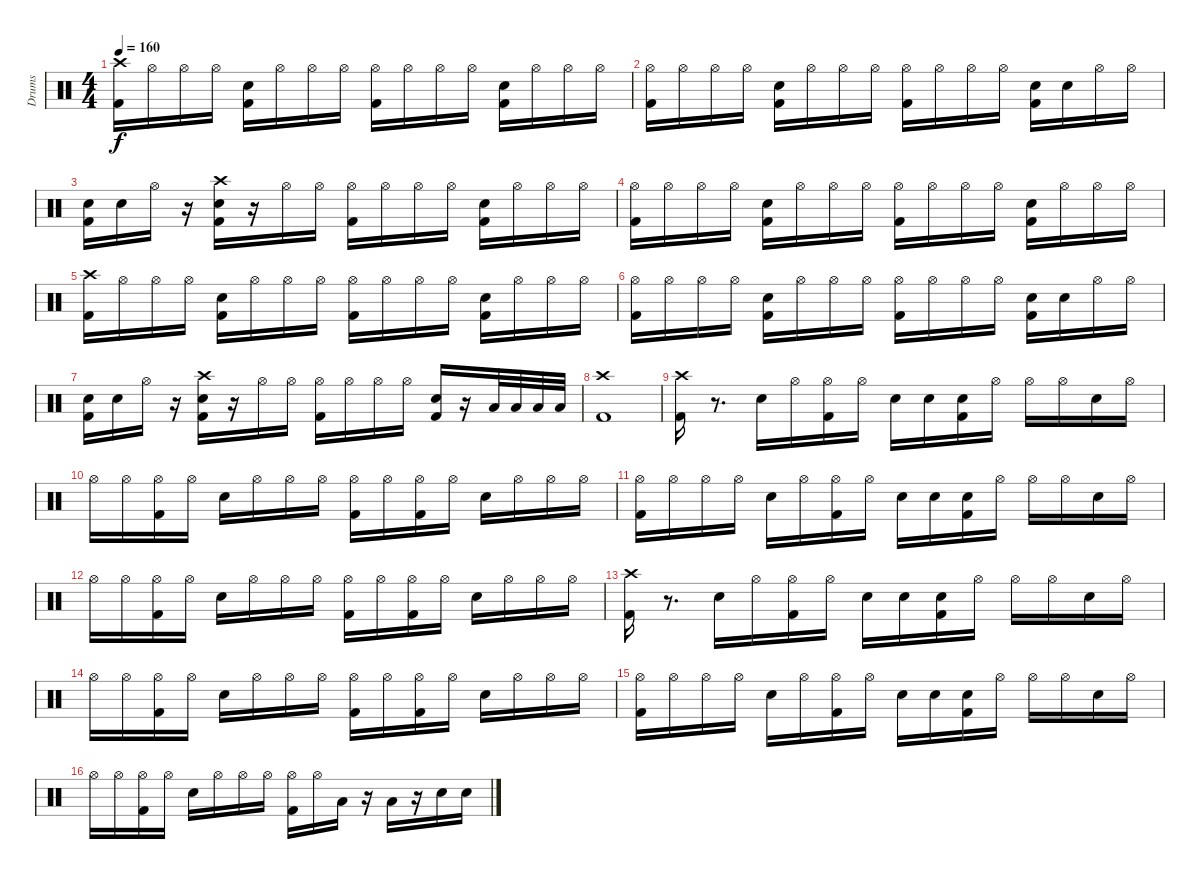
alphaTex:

\track ("Drums" "Drums") {instrument percussion}
\staff {score}
\articulation defaults
\ts (4 4)
\tempo 160
\clef neutral
\ks c
("Crash high (hit)" "Kick (hit) 2").16{dy f} "Hi-Hat (open)".16 "Hi-Hat (open)".16 "Hi-Hat (open)".16 ("Electric Snare (hit)" "Kick (hit) 2").16 "Hi-Hat (open)".16 "Hi-Hat (open)".16 "Hi-Hat (open)".16 ("Hi-Hat (open)" "Kick (hit) 2").16 "Hi-Hat (open)".16 "Hi-Hat (open)".16 "Hi-Hat (open)".16 ("Electric Snare (hit)" "Kick (hit) 2").16 "Hi-Hat (open)".16 "Hi-Hat (open)".16 "Hi-Hat (open)".16 |
("Hi-Hat (open)" "Kick (hit) 2").16 "Hi-Hat (open)".16 "Hi-Hat (open)".16 "Hi-Hat (open)".16 ("Electric Snare (hit)" "Kick (hit) 2").16 "Hi-Hat (open)".16 "Hi-Hat (open)".16 "Hi-Hat (open)".16 ("Hi-Hat (open)" "Kick (hit) 2").16 "Hi-Hat (open)".16 "Hi-Hat (open)".16 "Hi-Hat (open)".16 ("Electric Snare (hit)" "Kick (hit) 2").16 "Electric Snare (hit)".16 "Hi-Hat (open)".16 "Hi-Hat (open)".16 |
("Electric Snare (hit)" "Kick (hit) 2").16 "Electric Snare (hit)".16 "Hi-Hat (open)".16 r.16 ("Crash high (hit)" "Electric Snare (hit)" "Kick (hit) 2").16 r.16 "Hi-Hat (open)".16 "Hi-Hat (open)".16 ("Hi-Hat (open)" "Kick (hit) 2").16 "Hi-Hat (open)".16 "Hi-Hat (open)".16 "Hi-Hat (open)".16 ("Electric Snare (hit)" "Kick (hit) 2").16 "Hi-Hat (open)".16 "Hi-Hat (open)".16 "Hi-Hat (open)".16 |
("Hi-Hat (open)" "Kick (hit) 2").16 "Hi-Hat (open)".16 "Hi-Hat (open)".16 "Hi-Hat (open)".16 ("Electric Snare (hit)" "Kick (hit) 2").16 "Hi-Hat (open)".16 "Hi-Hat (open)".16 "Hi-Hat (open)".16 ("Hi-Hat (open)" "Kick (hit) 2").16 "Hi-Hat (open)".16 "Hi-Hat (open)".16 "Hi-Hat (open)".16 ("Electric Snare (hit)" "Kick (hit) 2").16 "Hi-Hat (open)".16 "Hi-Hat (open)".16 "Hi-Hat (open)".16 |
("Crash high (hit)" "Kick (hit) 2").16 "Hi-Hat (open)".16 "Hi-Hat (open)".16 "Hi-Hat (open)".16 ("Electric Snare (hit)" "Kick (hit) 2").16 "Hi-Hat (open)".16 "Hi-Hat (open)".16 "Hi-Hat (open)".16 ("Hi-Hat (open)" "Kick (hit) 2").16 "Hi-Hat (open)".16 "Hi-Hat (open)".16 "Hi-Hat (open)".16 ("Electric Snare (hit)" "Kick (hit) 2").16 "Hi-Hat (open)".16 "Hi-Hat (open)".16 "Hi-Hat (open)".16 |
("Hi-Hat (open)" "Kick (hit) 2").16 "Hi-Hat (open)".16 "Hi-Hat (open)".16 "Hi-Hat (open)".16 ("Electric Snare (hit)" "Kick (hit) 2").16 "Hi-Hat (open)".16 "Hi-Hat (open)".16 "Hi-Hat (open)".16 ("Hi-Hat (open)" "Kick (hit) 2").16 "Hi-Hat (open)".16 "Hi-Hat (open)".16 "Hi-Hat (open)".16 ("Electric Snare (hit)" "Kick (hit) 2").16 "Electric Snare (hit)".16 "Hi-Hat (open)".16 "Hi-Hat (open)".16 |
("Electric Snare (hit)" "Kick (hit) 2").16 "Electric Snare (hit)".16 "Hi-Hat (open)".16 r.16 ("Crash high (hit)" "Electric Snare (hit)" "Kick (hit) 2").16 r.16 "Hi-Hat (open)".16 "Hi-Hat (open)".16 ("Hi-Hat (open)" "Kick (hit) 2").16 "Hi-Hat (open)".16 "Hi-Hat (open)".16 "Hi-Hat (open)".16 ("Electric Snare (hit)" "Kick (hit) 2").16 r.16 "Low Tom (hit)".32 "Low Tom (hit)".32 "Low Tom (hit)".32 "Low Tom (hit)".32 |
("Crash high (hit)" "Kick (hit) 2").1 |
("Crash high (hit)" "Kick (hit) 2").16 r.8{d} "Electric Snare (hit)".16 "Hi-Hat (open)".16 ("Hi-Hat (open)" "Kick (hit) 2").16 "Hi-Hat (open)".16 "Electric Snare (hit)".16 "Electric Snare (hit)".16 ("Electric Snare (hit)" "Kick (hit) 2").16 "Hi-Hat (open)".16 "Hi-Hat (open)".16 "Hi-Hat (open)".16 "Electric Snare (hit)".16 "Hi-Hat (open)".16 |
"Hi-Hat (open)".16 "Hi-Hat (open)".16 ("Hi-Hat (open)" "Kick (hit) 2").16 "Hi-Hat (open)".16 "Electric Snare (hit)".16 "Hi-Hat (open)".16 "Hi-Hat (open)".16 "Hi-Hat (open)".16 ("Hi-Hat (open)" "Kick (hit) 2").16 "Hi-Hat (open)".16 ("Hi-Hat (open)" "Kick (hit) 2").16 "Hi-Hat (open)".16 "Electric Snare (hit)".16 "Hi-Hat (open)".16 "Hi-Hat (open)".16 "Hi-Hat (open)".16 |
("Hi-Hat (open)" "Kick (hit) 2").16 "Hi-Hat (open)".16 "Hi-Hat (open)".16 "Hi-Hat (open)".16 "Electric Snare (hit)".16 "Hi-Hat (open)".16 ("Hi-Hat (open)" "Kick (hit) 2").16 "Hi-Hat (open)".16 "Electric Snare (hit)".16 "Electric Snare (hit)".16 ("Electric Snare (hit)" "Kick (hit) 2").16 "Hi-Hat (open)".16 "Hi-Hat (open)".16 "Hi-Hat (open)".16 "Electric Snare (hit)".16 "Hi-Hat (open)".16 |
"Hi-Hat (open)".16 "Hi-Hat (open)".16 ("Hi-Hat (open)" "Kick (hit) 2").16 "Hi-Hat (open)".16 "Electric Snare (hit)".16 "Hi-Hat (open)".16 "Hi-Hat (open)".16 "Hi-Hat (open)".16 ("Hi-Hat (open)" "Kick (hit) 2").16 "Hi-Hat (open)".16 ("Hi-Hat (open)" "Kick (hit) 2").16 "Hi-Hat (open)".16 "Electric Snare (hit)".16 "Hi-Hat (open)".16 "Hi-Hat (open)".16 "Hi-Hat (open)".16 |
("Crash high (hit)" "Kick (hit) 2").16 r.8{d} "Electric Snare (hit)".16 "Hi-Hat (open)".16 ("Hi-Hat (open)" "Kick (hit) 2").16 "Hi-Hat (open)".16 "Electric Snare (hit)".16 "Electric Snare (hit)".16 ("Electric Snare (hit)" "Kick (hit) 2").16 "Hi-Hat (open)".16 "Hi-Hat (open)".16 "Hi-Hat (open)".16 "Electric Snare (hit)".16 "Hi-Hat (open)".16 |
"Hi-Hat (open)".16 "Hi-Hat (open)".16 ("Hi-Hat (open)" "Kick (hit) 2").16 "Hi-Hat (open)".16 "Electric Snare (hit)".16 "Hi-Hat (open)".16 "Hi-Hat (open)".16 "Hi-Hat (open)".16 ("Hi-Hat (open)" "Kick (hit) 2").16 "Hi-Hat (open)".16 ("Hi-Hat (open)" "Kick (hit) 2").16 "Hi-Hat (open)".16 "Electric Snare (hit)".16 "Hi-Hat (open)".16 "Hi-Hat (open)".16 "Hi-Hat (open)".16 |
("Hi-Hat (open)" "Kick (hit) 2").16 "Hi-Hat (open)".16 "Hi-Hat (open)".16 "Hi-Hat (open)".16 "Electric Snare (hit)".16 "Hi-Hat (open)".16 ("Hi-Hat (open)" "Kick (hit) 2").16 "Hi-Hat (open)".16 "Electric Snare (hit)".16 "Electric Snare (hit)".16 ("Electric Snare (hit)" "Kick (hit) 2").16 "Hi-Hat (open)".16 "Hi-Hat (open)".16 "Hi-Hat (open)".16 "Electric Snare (hit)".16 "Hi-Hat (open)".16 |
"Hi-Hat (open)".16 "Hi-Hat (open)".16 ("Hi-Hat (open)" "Kick (hit) 2").16 "Hi-Hat (open)".16 "Electric Snare (hit)".16 "Hi-Hat (open)".16 "Hi-Hat (open)".16 "Hi-Hat (open)".16 ("Hi-Hat (open)" "Kick (hit) 2").16 "Hi-Hat (open)".16 "Low Tom (hit)".16 r.16 "Low Tom (hit)".16 r.16 "Electric Snare (hit)".16 "Electric Snare (hit)".16
